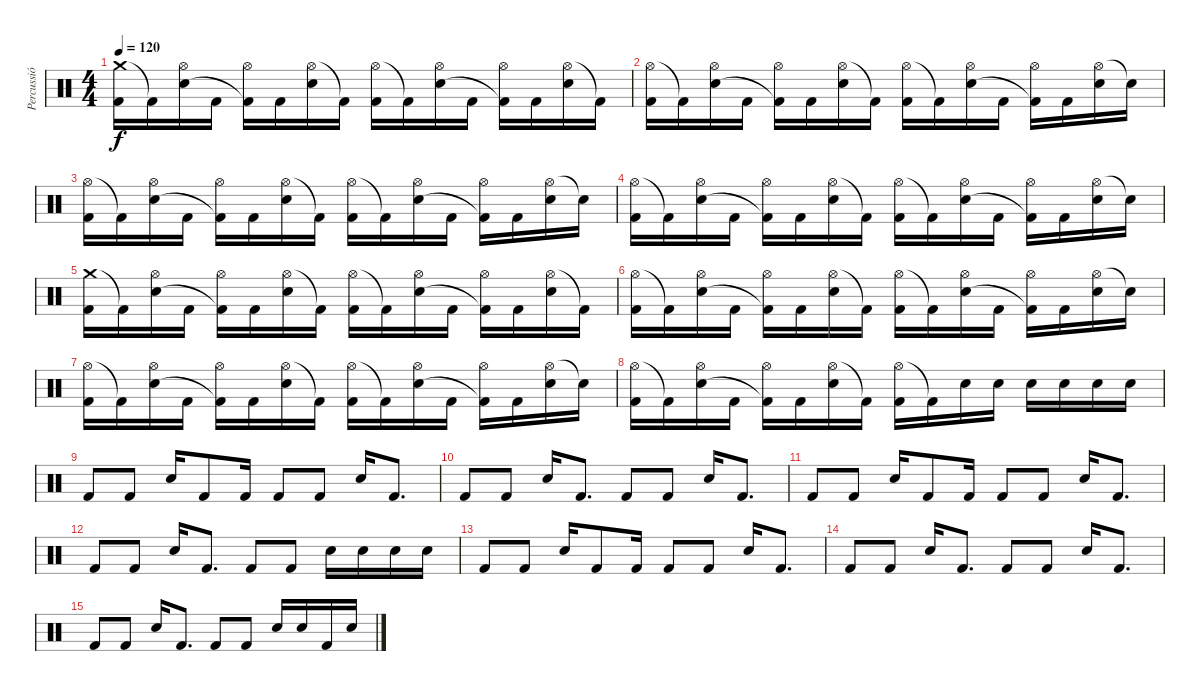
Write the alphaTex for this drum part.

\track ("Percussió" "Percussió") {instrument percussion}
\staff {score}
\articulation defaults
\ts (4 4)
\tempo 120
\clef neutral
\ks c
("Crash medium (hit)" "Kick (hit) 2").16{dy f} "Kick (hit) 2"{t}.16 ("Hi-Hat (open)" "Electric Snare (hit)").16 "Kick (hit) 2".16 ("Hi-Hat (open)" "Kick (hit) 2"{t}).16 "Kick (hit) 2".16 ("Hi-Hat (open)" "Electric Snare (hit)").16 "Kick (hit) 2"{t}.16 ("Hi-Hat (open)" "Kick (hit) 2").16 "Kick (hit) 2"{t}.16 ("Hi-Hat (open)" "Electric Snare (hit)").16 "Kick (hit) 2".16 ("Hi-Hat (open)" "Kick (hit) 2"{t}).16 "Kick (hit) 2".16 ("Hi-Hat (open)" "Electric Snare (hit)").16 "Kick (hit) 2"{t}.16 |
("Hi-Hat (open)" "Kick (hit) 2").16 "Kick (hit) 2"{t}.16 ("Hi-Hat (open)" "Electric Snare (hit)").16 "Kick (hit) 2".16 ("Hi-Hat (open)" "Kick (hit) 2"{t}).16 "Kick (hit) 2".16 ("Hi-Hat (open)" "Electric Snare (hit)").16 "Kick (hit) 2"{t}.16 ("Hi-Hat (open)" "Kick (hit) 2").16 "Kick (hit) 2"{t}.16 ("Hi-Hat (open)" "Electric Snare (hit)").16 "Kick (hit) 2".16 ("Hi-Hat (open)" "Kick (hit) 2"{t}).16 "Kick (hit) 2".16 ("Hi-Hat (open)" "Electric Snare (hit)").16 "Snare (hit)"{t}.16 |
("Hi-Hat (open)" "Kick (hit) 2").16 "Kick (hit) 2"{t}.16 ("Hi-Hat (open)" "Electric Snare (hit)").16 "Kick (hit) 2".16 ("Hi-Hat (open)" "Kick (hit) 2"{t}).16 "Kick (hit) 2".16 ("Hi-Hat (open)" "Electric Snare (hit)").16 "Kick (hit) 2"{t}.16 ("Hi-Hat (open)" "Kick (hit) 2").16 "Kick (hit) 2"{t}.16 ("Hi-Hat (open)" "Electric Snare (hit)").16 "Kick (hit) 2".16 ("Hi-Hat (open)" "Kick (hit) 2"{t}).16 "Kick (hit) 2".16 ("Hi-Hat (open)" "Electric Snare (hit)").16 "Snare (hit)"{t}.16 |
("Hi-Hat (open)" "Kick (hit) 2").16 "Kick (hit) 2"{t}.16 ("Hi-Hat (open)" "Electric Snare (hit)").16 "Kick (hit) 2".16 ("Hi-Hat (open)" "Kick (hit) 2"{t}).16 "Kick (hit) 2".16 ("Hi-Hat (open)" "Electric Snare (hit)").16 "Kick (hit) 2"{t}.16 ("Hi-Hat (open)" "Kick (hit) 2").16 "Kick (hit) 2"{t}.16 ("Hi-Hat (open)" "Electric Snare (hit)").16 "Kick (hit) 2".16 ("Hi-Hat (open)" "Kick (hit) 2"{t}).16 "Kick (hit) 2".16 ("Hi-Hat (open)" "Electric Snare (hit)").16 "Snare (hit)"{t}.16 |
("Crash medium (hit)" "Kick (hit) 2").16 "Kick (hit) 2"{t}.16 ("Hi-Hat (open)" "Electric Snare (hit)").16 "Kick (hit) 2".16 ("Hi-Hat (open)" "Kick (hit) 2"{t}).16 "Kick (hit) 2".16 ("Hi-Hat (open)" "Electric Snare (hit)").16 "Kick (hit) 2"{t}.16 ("Hi-Hat (open)" "Kick (hit) 2").16 "Kick (hit) 2"{t}.16 ("Hi-Hat (open)" "Electric Snare (hit)").16 "Kick (hit) 2".16 ("Hi-Hat (open)" "Kick (hit) 2"{t}).16 "Kick (hit) 2".16 ("Hi-Hat (open)" "Electric Snare (hit)").16 "Kick (hit) 2"{t}.16 |
("Hi-Hat (open)" "Kick (hit) 2").16 "Kick (hit) 2"{t}.16 ("Hi-Hat (open)" "Electric Snare (hit)").16 "Kick (hit) 2".16 ("Hi-Hat (open)" "Kick (hit) 2"{t}).16 "Kick (hit) 2".16 ("Hi-Hat (open)" "Electric Snare (hit)").16 "Kick (hit) 2"{t}.16 ("Hi-Hat (open)" "Kick (hit) 2").16 "Kick (hit) 2"{t}.16 ("Hi-Hat (open)" "Electric Snare (hit)").16 "Kick (hit) 2".16 ("Hi-Hat (open)" "Kick (hit) 2"{t}).16 "Kick (hit) 2".16 ("Hi-Hat (open)" "Electric Snare (hit)").16 "Snare (hit)"{t}.16 |
("Hi-Hat (open)" "Kick (hit) 2").16 "Kick (hit) 2"{t}.16 ("Hi-Hat (open)" "Electric Snare (hit)").16 "Kick (hit) 2".16 ("Hi-Hat (open)" "Kick (hit) 2"{t}).16 "Kick (hit) 2".16 ("Hi-Hat (open)" "Electric Snare (hit)").16 "Kick (hit) 2"{t}.16 ("Hi-Hat (open)" "Kick (hit) 2").16 "Kick (hit) 2"{t}.16 ("Hi-Hat (open)" "Electric Snare (hit)").16 "Kick (hit) 2".16 ("Hi-Hat (open)" "Kick (hit) 2"{t}).16 "Kick (hit) 2".16 ("Hi-Hat (open)" "Electric Snare (hit)").16 "Snare (hit)"{t}.16 |
("Hi-Hat (open)" "Kick (hit) 2").16 "Kick (hit) 2"{t}.16 ("Hi-Hat (open)" "Electric Snare (hit)").16 "Kick (hit) 2".16 ("Hi-Hat (open)" "Kick (hit) 2"{t}).16 "Kick (hit) 2".16 ("Hi-Hat (open)" "Electric Snare (hit)").16 "Kick (hit) 2"{t}.16 ("Hi-Hat (open)" "Kick (hit) 2").16 "Kick (hit) 2"{t}.16 "Electric Snare (hit)".16 "Electric Snare (hit)".16 "Electric Snare (hit)".16 "Electric Snare (hit)".16 "Electric Snare (hit)".16 "Electric Snare (hit)".16 |
"Kick (hit) 2".8 "Kick (hit) 2".8 "Electric Snare (hit)".16 "Kick (hit) 2".8 "Kick (hit) 2".16 "Kick (hit) 2".8 "Kick (hit) 2".8 "Electric Snare (hit)".16 "Kick (hit) 2".8{d} |
"Kick (hit) 2".8 "Kick (hit) 2".8 "Electric Snare (hit)".16 "Kick (hit) 2".8{d} "Kick (hit) 2".8 "Kick (hit) 2".8 "Electric Snare (hit)".16 "Kick (hit) 2".8{d} |
"Kick (hit) 2".8 "Kick (hit) 2".8 "Electric Snare (hit)".16 "Kick (hit) 2".8 "Kick (hit) 2".16 "Kick (hit) 2".8 "Kick (hit) 2".8 "Electric Snare (hit)".16 "Kick (hit) 2".8{d} |
"Kick (hit) 2".8 "Kick (hit) 2".8 "Electric Snare (hit)".16 "Kick (hit) 2".8{d} "Kick (hit) 2".8 "Kick (hit) 2".8 "Electric Snare (hit)".16 "Electric Snare (hit)".16 "Electric Snare (hit)".16 "Electric Snare (hit)".16 |
"Kick (hit) 2".8 "Kick (hit) 2".8 "Electric Snare (hit)".16 "Kick (hit) 2".8 "Kick (hit) 2".16 "Kick (hit) 2".8 "Kick (hit) 2".8 "Electric Snare (hit)".16 "Kick (hit) 2".8{d} |
"Kick (hit) 2".8 "Kick (hit) 2".8 "Electric Snare (hit)".16 "Kick (hit) 2".8{d} "Kick (hit) 2".8 "Kick (hit) 2".8 "Electric Snare (hit)".16 "Kick (hit) 2".8{d} |
"Kick (hit) 2".8 "Kick (hit) 2".8 "Electric Snare (hit)".16 "Kick (hit) 2".8{d} "Kick (hit) 2".8 "Kick (hit) 2".8 "Electric Snare (hit)".16 "Electric Snare (hit)".16 "Kick (hit) 2".16 "Electric Snare (hit)".16
